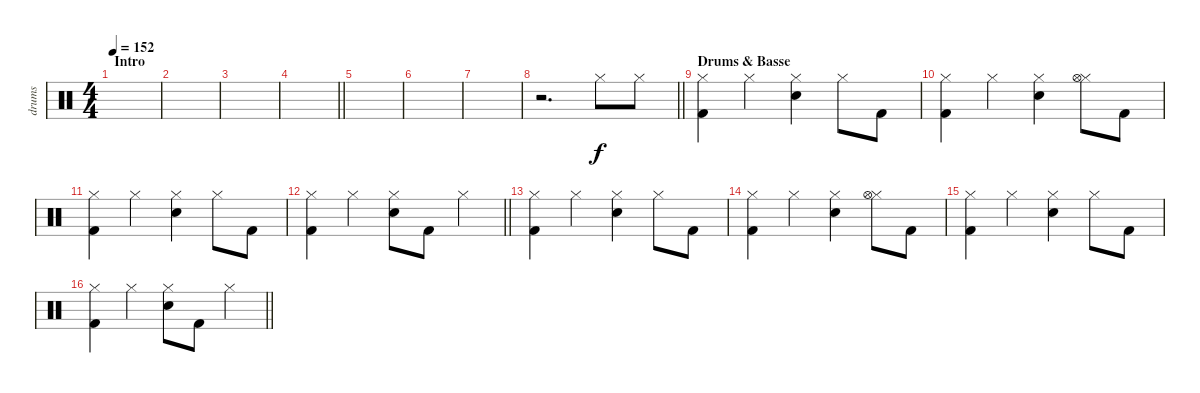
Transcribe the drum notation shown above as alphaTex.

\track ("drums" "drums") {instrument percussion}
\staff {score}
\articulation defaults
\ts (4 4)
\section ("" "Intro")
\tempo 152
\clef neutral
\ks c
|
|
|
\barLineRight lightlight
|
|
|
|
\barLineRight lightlight
r.2{d} "Hi-Hat (closed)".8 "Hi-Hat (closed)".8 |
\section ("" "Drums & Basse")
("Hi-Hat (closed)" "Kick (hit) 2").4 "Hi-Hat (closed)".4 ("Hi-Hat (closed)" "Electric Snare (hit)").4 "Hi-Hat (closed)".8 "Kick (hit) 2".8 |
("Hi-Hat (closed)" "Kick (hit) 2").4 "Hi-Hat (closed)".4 ("Hi-Hat (closed)" "Electric Snare (hit)").4 ("Hi-Hat (closed)" "Hi-Hat (open)").8 "Kick (hit) 2".8 |
("Hi-Hat (closed)" "Kick (hit) 2").4 "Hi-Hat (closed)".4 ("Hi-Hat (closed)" "Electric Snare (hit)").4 "Hi-Hat (closed)".8 "Kick (hit) 2".8 |
\barLineRight lightlight
("Hi-Hat (closed)" "Kick (hit) 2").4 "Hi-Hat (closed)".4 ("Hi-Hat (closed)" "Electric Snare (hit)").8 "Kick (hit) 2".8 "Hi-Hat (closed)".4 |
("Hi-Hat (closed)" "Kick (hit) 2").4 "Hi-Hat (closed)".4 ("Hi-Hat (closed)" "Electric Snare (hit)").4 "Hi-Hat (closed)".8 "Kick (hit) 2".8 |
("Hi-Hat (closed)" "Kick (hit) 2").4 "Hi-Hat (closed)".4 ("Hi-Hat (closed)" "Electric Snare (hit)").4 ("Hi-Hat (closed)" "Hi-Hat (open)").8 "Kick (hit) 2".8 |
("Hi-Hat (closed)" "Kick (hit) 2").4 "Hi-Hat (closed)".4 ("Hi-Hat (closed)" "Electric Snare (hit)").4 "Hi-Hat (closed)".8 "Kick (hit) 2".8 |
\barLineRight lightlight
("Hi-Hat (closed)" "Kick (hit) 2").4 "Hi-Hat (closed)".4 ("Hi-Hat (closed)" "Electric Snare (hit)").8 "Kick (hit) 2".8 "Hi-Hat (closed)".4
